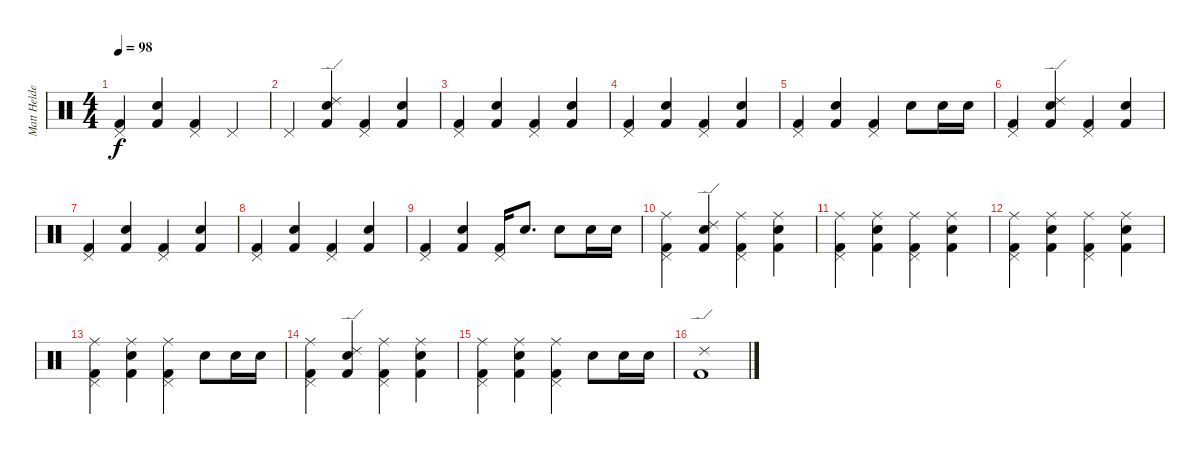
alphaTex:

\track ("Matt Helders" "Matt Helde") {instrument percussion}
\staff {score}
\articulation defaults
\ts (4 4)
\tempo 98
\clef neutral
\ks c
("Kick (hit) 2" "Pedal Hi-Hat (hit)").4{dy f} ("Snare (hit) 2" "Kick (hit) 2").4 ("Kick (hit) 2" "Pedal Hi-Hat (hit)").4 "Pedal Hi-Hat (hit)".4 |
"Pedal Hi-Hat (hit)".4 ("Snare (hit) 2" "Kick (hit) 2" "Ride (edge) 2").4 ("Kick (hit) 2" "Pedal Hi-Hat (hit)").4 ("Snare (hit) 2" "Kick (hit) 2").4 |
("Kick (hit) 2" "Pedal Hi-Hat (hit)").4 ("Snare (hit) 2" "Kick (hit) 2").4 ("Kick (hit) 2" "Pedal Hi-Hat (hit)").4 ("Snare (hit) 2" "Kick (hit) 2").4 |
("Kick (hit) 2" "Pedal Hi-Hat (hit)").4 ("Snare (hit) 2" "Kick (hit) 2").4 ("Kick (hit) 2" "Pedal Hi-Hat (hit)").4 ("Snare (hit) 2" "Kick (hit) 2").4 |
("Kick (hit) 2" "Pedal Hi-Hat (hit)").4 ("Snare (hit) 2" "Kick (hit) 2").4 ("Kick (hit) 2" "Pedal Hi-Hat (hit)").4 "Snare (hit) 2".8 "Snare (hit) 2".16 "Snare (hit) 2".16 |
("Kick (hit) 2" "Pedal Hi-Hat (hit)").4 ("Snare (hit) 2" "Kick (hit) 2" "Ride (edge) 2").4 ("Kick (hit) 2" "Pedal Hi-Hat (hit)").4 ("Snare (hit) 2" "Kick (hit) 2").4 |
("Kick (hit) 2" "Pedal Hi-Hat (hit)").4 ("Snare (hit) 2" "Kick (hit) 2").4 ("Kick (hit) 2" "Pedal Hi-Hat (hit)").4 ("Snare (hit) 2" "Kick (hit) 2").4 |
("Kick (hit) 2" "Pedal Hi-Hat (hit)").4 ("Snare (hit) 2" "Kick (hit) 2").4 ("Kick (hit) 2" "Pedal Hi-Hat (hit)").4 ("Snare (hit) 2" "Kick (hit) 2").4 |
("Kick (hit) 2" "Pedal Hi-Hat (hit)").4 ("Snare (hit) 2" "Kick (hit) 2").4 ("Kick (hit) 2" "Pedal Hi-Hat (hit)").16 "Snare (hit) 2".8{d} "Snare (hit) 2".8 "Snare (hit) 2".16 "Snare (hit) 2".16 |
("Kick (hit) 2" "Pedal Hi-Hat (hit)" "Ride (middle)").4 ("Snare (hit) 2" "Kick (hit) 2" "Ride (edge) 2").4 ("Kick (hit) 2" "Pedal Hi-Hat (hit)" "Ride (middle)").4 ("Snare (hit) 2" "Kick (hit) 2" "Ride (middle)").4 |
("Kick (hit) 2" "Pedal Hi-Hat (hit)" "Ride (middle)").4 ("Snare (hit) 2" "Kick (hit) 2" "Ride (middle)").4 ("Kick (hit) 2" "Pedal Hi-Hat (hit)" "Ride (middle)").4 ("Snare (hit) 2" "Kick (hit) 2" "Ride (middle)").4 |
("Kick (hit) 2" "Pedal Hi-Hat (hit)" "Ride (middle)").4 ("Snare (hit) 2" "Kick (hit) 2" "Ride (middle)").4 ("Kick (hit) 2" "Pedal Hi-Hat (hit)" "Ride (middle)").4 ("Snare (hit) 2" "Kick (hit) 2" "Ride (middle)").4 |
("Kick (hit) 2" "Pedal Hi-Hat (hit)" "Ride (middle)").4 ("Snare (hit) 2" "Kick (hit) 2" "Ride (middle)").4 ("Kick (hit) 2" "Pedal Hi-Hat (hit)" "Ride (middle)").4 "Snare (hit) 2".8 "Snare (hit) 2".16 "Snare (hit) 2".16 |
("Kick (hit) 2" "Pedal Hi-Hat (hit)" "Ride (middle)").4 ("Snare (hit) 2" "Kick (hit) 2" "Ride (edge) 2").4 ("Kick (hit) 2" "Pedal Hi-Hat (hit)" "Ride (middle)").4 ("Snare (hit) 2" "Kick (hit) 2" "Ride (middle)").4 |
("Kick (hit) 2" "Pedal Hi-Hat (hit)" "Ride (middle)").4 ("Snare (hit) 2" "Kick (hit) 2" "Ride (middle)").4 ("Kick (hit) 2" "Pedal Hi-Hat (hit)" "Ride (middle)").4 "Snare (hit) 2".8 "Snare (hit) 2".16 "Snare (hit) 2".16 |
("Kick (hit) 2" "Ride (edge) 2").1
